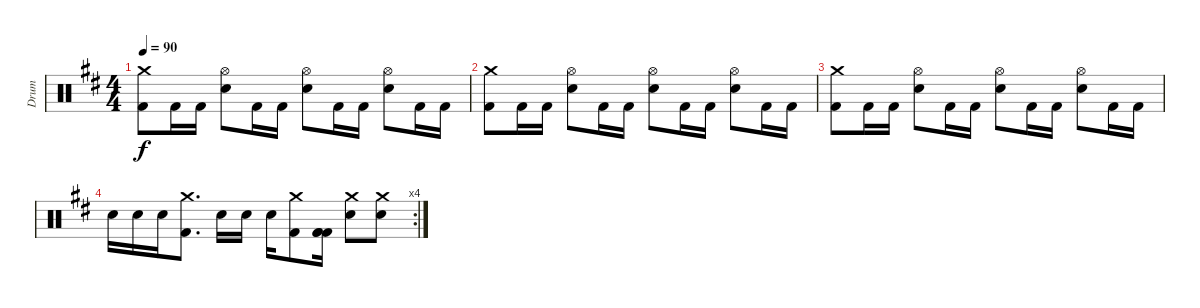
\track ("Drum" "Drum") {instrument percussion}
\staff {score}
\articulation defaults
\ts (4 4)
\tempo 90
\clef neutral
\ks d
("Kick (hit) 2" "Crash medium (hit)").8{dy f} "Kick (hit) 2".16 "Kick (hit) 2".16 ("Snare (hit) 2" "Hi-Hat (open)").8 "Kick (hit) 2".16 "Kick (hit) 2".16 ("Snare (hit) 2" "Hi-Hat (open)").8 "Kick (hit) 2".16 "Kick (hit) 2".16 ("Snare (hit) 2" "Hi-Hat (open)").8 "Kick (hit) 2".16 "Kick (hit) 2".16 |
("Kick (hit) 2" "Crash medium (hit)").8 "Kick (hit) 2".16 "Kick (hit) 2".16 ("Snare (hit) 2" "Hi-Hat (open)").8 "Kick (hit) 2".16 "Kick (hit) 2".16 ("Snare (hit) 2" "Hi-Hat (open)").8 "Kick (hit) 2".16 "Kick (hit) 2".16 ("Snare (hit) 2" "Hi-Hat (open)").8 "Kick (hit) 2".16 "Kick (hit) 2".16 |
("Kick (hit) 2" "Crash medium (hit)").8 "Kick (hit) 2".16 "Kick (hit) 2".16 ("Snare (hit) 2" "Hi-Hat (open)").8 "Kick (hit) 2".16 "Kick (hit) 2".16 ("Snare (hit) 2" "Hi-Hat (open)").8 "Kick (hit) 2".16 "Kick (hit) 2".16 ("Snare (hit) 2" "Hi-Hat (open)").8 "Kick (hit) 2".16 "Kick (hit) 2".16 |
\rc 4 "Snare (hit) 2".16 "Snare (hit) 2".16 "Snare (hit) 2".16
("Crash medium (hit)" "Kick (hit) 2").8{d} "Snare (hit) 2".16 "Snare (hit) 2".16 "Snare (hit) 2".16 ("Crash medium (hit)" "Kick (hit) 2").8 ("Kick (hit) 2" "Kick (hit) 2" "Kick (hit) 2").16{bd 480} ("Crash medium (hit)" "Snare (hit) 2").8 ("Crash medium (hit)" "Snare (hit) 2").8
